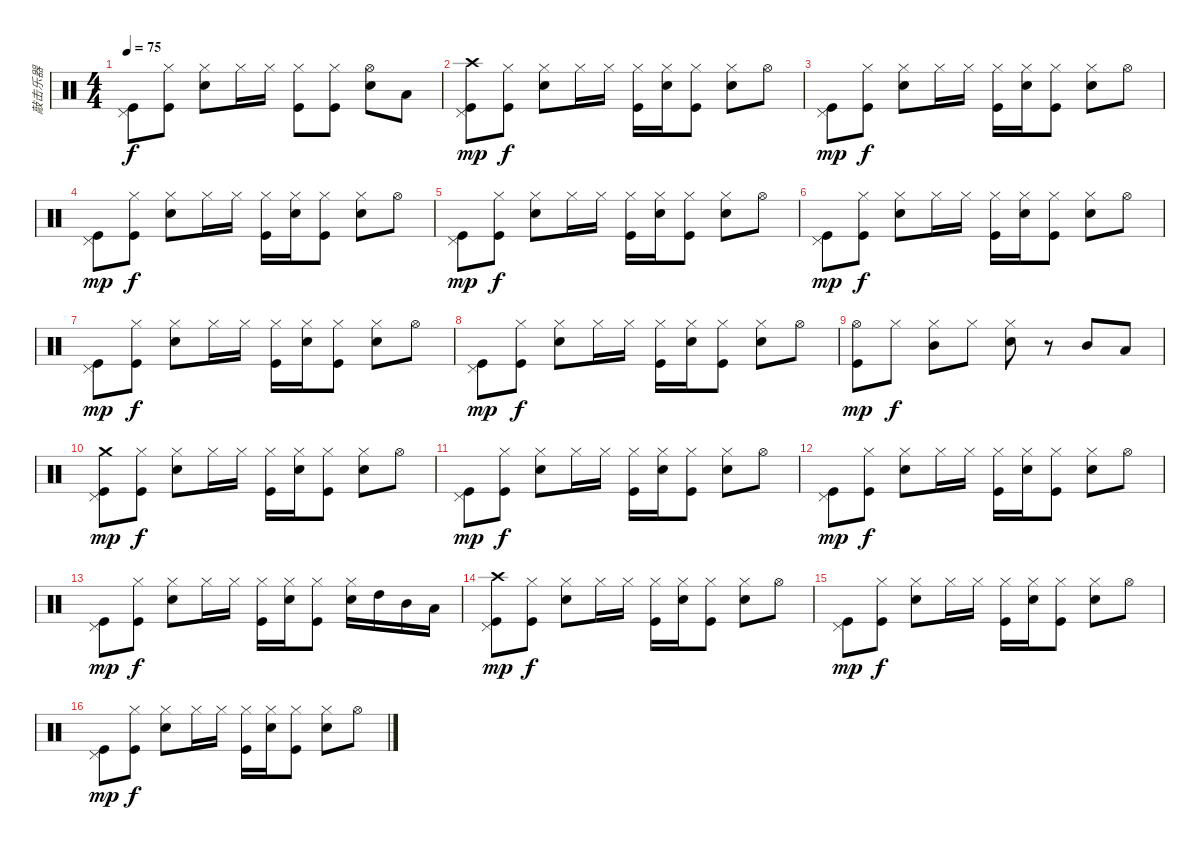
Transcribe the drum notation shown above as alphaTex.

\track ("敲击乐器" "敲击乐器") {instrument percussion}
\staff {score}
\articulation defaults
\ts (4 4)
\tempo 75
\clef neutral
\ks c
("Pedal Hi-Hat (hit)" "Kick (hit)").8{dy f} ("Hi-Hat (closed)" "Kick (hit)").8 ("Hi-Hat (closed)" "Snare (hit) 2").8 "Hi-Hat (closed)".16 "Hi-Hat (closed)".16 ("Hi-Hat (closed)" "Kick (hit)").8 ("Hi-Hat (closed)" "Kick (hit)").8 ("Hi-Hat (open)" "Snare (hit) 2").8 "Low Tom (hit)".8 |
("Pedal Hi-Hat (hit)" "Crash high (hit)" "Kick (hit)").8{dy mp} ("Hi-Hat (closed)" "Kick (hit)").8{dy f} ("Hi-Hat (closed)" "Snare (hit) 2").8 "Hi-Hat (closed)".16 "Hi-Hat (closed)".16 ("Hi-Hat (closed)" "Kick (hit)").16 ("Hi-Hat (closed)" "Electric Snare (hit)").16 ("Hi-Hat (closed)" "Kick (hit)").8 ("Hi-Hat (closed)" "Snare (hit) 2").8 "Hi-Hat (open)".8 |
("Pedal Hi-Hat (hit)" "Kick (hit)").8{dy mp} ("Hi-Hat (closed)" "Kick (hit)").8{dy f} ("Hi-Hat (closed)" "Snare (hit) 2").8 "Hi-Hat (closed)".16 "Hi-Hat (closed)".16 ("Hi-Hat (closed)" "Kick (hit)").16 ("Hi-Hat (closed)" "Electric Snare (hit)").16 ("Hi-Hat (closed)" "Kick (hit)").8 ("Hi-Hat (closed)" "Snare (hit) 2").8 "Hi-Hat (open)".8 |
("Pedal Hi-Hat (hit)" "Kick (hit)").8{dy mp} ("Hi-Hat (closed)" "Kick (hit)").8{dy f} ("Hi-Hat (closed)" "Snare (hit) 2").8 "Hi-Hat (closed)".16 "Hi-Hat (closed)".16 ("Hi-Hat (closed)" "Kick (hit)").16 ("Hi-Hat (closed)" "Electric Snare (hit)").16 ("Hi-Hat (closed)" "Kick (hit)").8 ("Hi-Hat (closed)" "Snare (hit) 2").8 "Hi-Hat (open)".8 |
("Pedal Hi-Hat (hit)" "Kick (hit)").8{dy mp} ("Hi-Hat (closed)" "Kick (hit)").8{dy f} ("Hi-Hat (closed)" "Snare (hit) 2").8 "Hi-Hat (closed)".16 "Hi-Hat (closed)".16 ("Hi-Hat (closed)" "Kick (hit)").16 ("Hi-Hat (closed)" "Electric Snare (hit)").16 ("Hi-Hat (closed)" "Kick (hit)").8 ("Hi-Hat (closed)" "Snare (hit) 2").8 "Hi-Hat (open)".8 |
("Pedal Hi-Hat (hit)" "Kick (hit)").8{dy mp} ("Hi-Hat (closed)" "Kick (hit)").8{dy f} ("Hi-Hat (closed)" "Snare (hit) 2").8 "Hi-Hat (closed)".16 "Hi-Hat (closed)".16 ("Hi-Hat (closed)" "Kick (hit)").16 ("Hi-Hat (closed)" "Electric Snare (hit)").16 ("Hi-Hat (closed)" "Kick (hit)").8 ("Hi-Hat (closed)" "Snare (hit) 2").8 "Hi-Hat (open)".8 |
("Pedal Hi-Hat (hit)" "Kick (hit)").8{dy mp} ("Hi-Hat (closed)" "Kick (hit)").8{dy f} ("Hi-Hat (closed)" "Snare (hit) 2").8 "Hi-Hat (closed)".16 "Hi-Hat (closed)".16 ("Hi-Hat (closed)" "Kick (hit)").16 ("Hi-Hat (closed)" "Electric Snare (hit)").16 ("Hi-Hat (closed)" "Kick (hit)").8 ("Hi-Hat (closed)" "Snare (hit) 2").8 "Hi-Hat (open)".8 |
("Pedal Hi-Hat (hit)" "Kick (hit)").8{dy mp} ("Hi-Hat (closed)" "Kick (hit)").8{dy f} ("Hi-Hat (closed)" "Snare (hit) 2").8 "Hi-Hat (closed)".16 "Hi-Hat (closed)".16 ("Hi-Hat (closed)" "Kick (hit)").16 ("Hi-Hat (closed)" "Electric Snare (hit)").16 ("Hi-Hat (closed)" "Kick (hit)").8 ("Hi-Hat (closed)" "Snare (hit) 2").8 "Hi-Hat (open)".8 |
("Hi-Hat (open)" "Kick (hit)").8{dy mp} "Hi-Hat (closed)".8{dy f} ("Hi-Hat (closed)" "Mid Tom (hit)").8 "Hi-Hat (closed)".8 ("Hi-Hat (closed)" "Snare (hit) 2").8 r.8 "Mid Tom (hit)".8 "Low Tom (hit)".8 |
("Pedal Hi-Hat (hit)" "Crash medium (hit)" "Kick (hit)").8{dy mp} ("Hi-Hat (closed)" "Kick (hit)").8{dy f} ("Hi-Hat (closed)" "Snare (hit) 2").8 "Hi-Hat (closed)".16 "Hi-Hat (closed)".16 ("Hi-Hat (closed)" "Kick (hit)").16 ("Hi-Hat (closed)" "Electric Snare (hit)").16 ("Hi-Hat (closed)" "Kick (hit)").8 ("Hi-Hat (closed)" "Snare (hit) 2").8 "Hi-Hat (open)".8 |
("Pedal Hi-Hat (hit)" "Kick (hit)").8{dy mp} ("Hi-Hat (closed)" "Kick (hit)").8{dy f} ("Hi-Hat (closed)" "Snare (hit) 2").8 "Hi-Hat (closed)".16 "Hi-Hat (closed)".16 ("Hi-Hat (closed)" "Kick (hit)").16 ("Hi-Hat (closed)" "Electric Snare (hit)").16 ("Hi-Hat (closed)" "Kick (hit)").8 ("Hi-Hat (closed)" "Snare (hit) 2").8 "Hi-Hat (open)".8 |
("Pedal Hi-Hat (hit)" "Kick (hit)").8{dy mp} ("Hi-Hat (closed)" "Kick (hit)").8{dy f} ("Hi-Hat (closed)" "Snare (hit) 2").8 "Hi-Hat (closed)".16 "Hi-Hat (closed)".16 ("Hi-Hat (closed)" "Kick (hit)").16 ("Hi-Hat (closed)" "Electric Snare (hit)").16 ("Hi-Hat (closed)" "Kick (hit)").8 ("Hi-Hat (closed)" "Snare (hit) 2").8 "Hi-Hat (open)".8 |
("Pedal Hi-Hat (hit)" "Kick (hit)").8{dy mp} ("Hi-Hat (closed)" "Kick (hit)").8{dy f} ("Hi-Hat (closed)" "Snare (hit) 2").8 "Hi-Hat (closed)".16 "Hi-Hat (closed)".16 ("Hi-Hat (closed)" "Kick (hit)").16 ("Hi-Hat (closed)" "Electric Snare (hit)").16 ("Hi-Hat (closed)" "Kick (hit)").8 ("Hi-Hat (closed)" "Snare (hit) 2").16 "High Tom (hit)".16 "Mid Tom (hit)".16 "Low Tom (hit)".16 |
("Pedal Hi-Hat (hit)" "Crash high (hit)" "Kick (hit)").8{dy mp} ("Hi-Hat (closed)" "Kick (hit)").8{dy f} ("Hi-Hat (closed)" "Snare (hit) 2").8 "Hi-Hat (closed)".16 "Hi-Hat (closed)".16 ("Hi-Hat (closed)" "Kick (hit)").16 ("Hi-Hat (closed)" "Electric Snare (hit)").16 ("Hi-Hat (closed)" "Kick (hit)").8 ("Hi-Hat (closed)" "Snare (hit) 2").8 "Hi-Hat (open)".8 |
("Pedal Hi-Hat (hit)" "Kick (hit)").8{dy mp} ("Hi-Hat (closed)" "Kick (hit)").8{dy f} ("Hi-Hat (closed)" "Snare (hit) 2").8 "Hi-Hat (closed)".16 "Hi-Hat (closed)".16 ("Hi-Hat (closed)" "Kick (hit)").16 ("Hi-Hat (closed)" "Electric Snare (hit)").16 ("Hi-Hat (closed)" "Kick (hit)").8 ("Hi-Hat (closed)" "Snare (hit) 2").8 "Hi-Hat (open)".8 |
("Pedal Hi-Hat (hit)" "Kick (hit)").8{dy mp} ("Hi-Hat (closed)" "Kick (hit)").8{dy f} ("Hi-Hat (closed)" "Snare (hit) 2").8 "Hi-Hat (closed)".16 "Hi-Hat (closed)".16 ("Hi-Hat (closed)" "Kick (hit)").16 ("Hi-Hat (closed)" "Electric Snare (hit)").16 ("Hi-Hat (closed)" "Kick (hit)").8 ("Hi-Hat (closed)" "Snare (hit) 2").8 "Hi-Hat (open)".8
